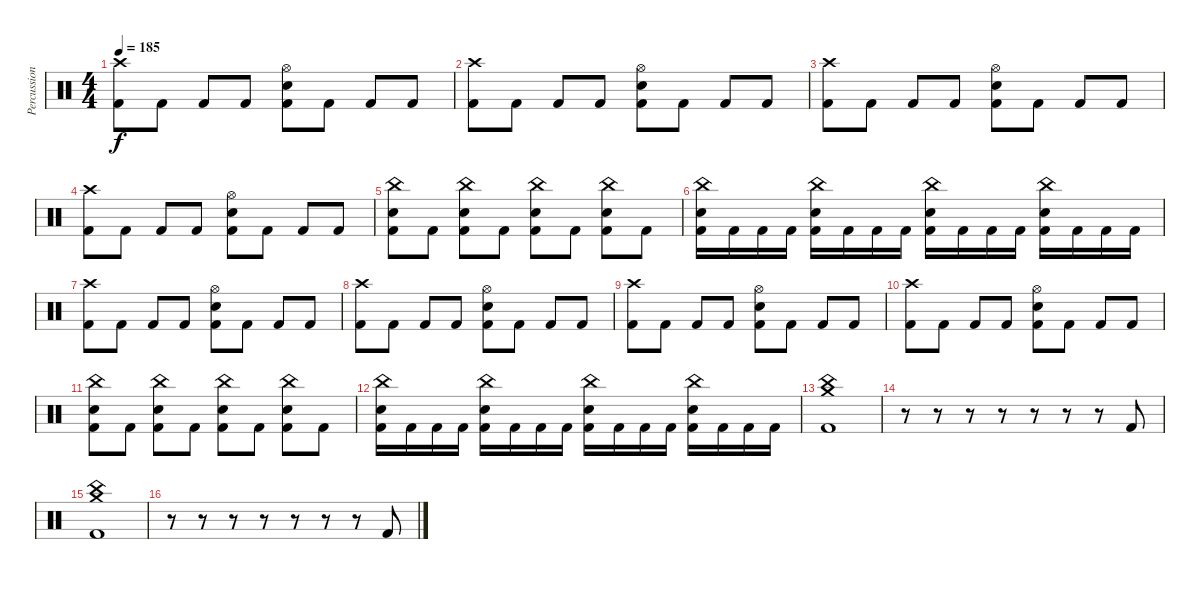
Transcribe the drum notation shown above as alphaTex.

\track ("Percussion" "Percussion") {instrument percussion}
\staff {score}
\articulation defaults
\ts (4 4)
\tempo 185
\clef neutral
\ks c
("Crash high (hit)" "Kick (hit) 2").8{dy f} "Kick (hit) 2".8 "Kick (hit) 2".8 "Kick (hit) 2".8 ("Snare (hit) 2" "Hi-Hat (open)" "Kick (hit) 2").8 "Kick (hit) 2".8 "Kick (hit) 2".8 "Kick (hit) 2".8 |
("Crash high (hit)" "Kick (hit) 2").8 "Kick (hit) 2".8 "Kick (hit) 2".8 "Kick (hit) 2".8 ("Snare (hit) 2" "Hi-Hat (open)" "Kick (hit) 2").8 "Kick (hit) 2".8 "Kick (hit) 2".8 "Kick (hit) 2".8 |
("Crash high (hit)" "Kick (hit) 2").8 "Kick (hit) 2".8 "Kick (hit) 2".8 "Kick (hit) 2".8 ("Snare (hit) 2" "Hi-Hat (open)" "Kick (hit) 2").8 "Kick (hit) 2".8 "Kick (hit) 2".8 "Kick (hit) 2".8 |
("Crash high (hit)" "Kick (hit) 2").8 "Kick (hit) 2".8 "Kick (hit) 2".8 "Kick (hit) 2".8 ("Snare (hit) 2" "Hi-Hat (open)" "Kick (hit) 2").8 "Kick (hit) 2".8 "Kick (hit) 2".8 "Kick (hit) 2".8 |
("Snare (hit) 2" "China (hit)" "Kick (hit) 2").8 "Kick (hit) 2".8 ("Snare (hit) 2" "China (hit)" "Kick (hit) 2").8 "Kick (hit) 2".8 ("Snare (hit) 2" "China (hit)" "Kick (hit) 2").8 "Kick (hit) 2".8 ("Snare (hit) 2" "China (hit)" "Kick (hit) 2").8 "Kick (hit) 2".8 |
("Snare (hit) 2" "China (hit)" "Kick (hit) 2").16 "Kick (hit) 2".16 "Kick (hit) 2".16 "Kick (hit) 2".16 ("Snare (hit) 2" "China (hit)" "Kick (hit) 2").16 "Kick (hit) 2".16 "Kick (hit) 2".16 "Kick (hit) 2".16 ("Snare (hit) 2" "China (hit)" "Kick (hit) 2").16 "Kick (hit) 2".16 "Kick (hit) 2".16 "Kick (hit) 2".16 ("Snare (hit) 2" "China (hit)" "Kick (hit) 2").16 "Kick (hit) 2".16 "Kick (hit) 2".16 "Kick (hit) 2".16 |
("Crash high (hit)" "Kick (hit) 2").8 "Kick (hit) 2".8 "Kick (hit) 2".8 "Kick (hit) 2".8 ("Snare (hit) 2" "Hi-Hat (open)" "Kick (hit) 2").8 "Kick (hit) 2".8 "Kick (hit) 2".8 "Kick (hit) 2".8 |
("Crash high (hit)" "Kick (hit) 2").8 "Kick (hit) 2".8 "Kick (hit) 2".8 "Kick (hit) 2".8 ("Snare (hit) 2" "Hi-Hat (open)" "Kick (hit) 2").8 "Kick (hit) 2".8 "Kick (hit) 2".8 "Kick (hit) 2".8 |
("Crash high (hit)" "Kick (hit) 2").8 "Kick (hit) 2".8 "Kick (hit) 2".8 "Kick (hit) 2".8 ("Snare (hit) 2" "Hi-Hat (open)" "Kick (hit) 2").8 "Kick (hit) 2".8 "Kick (hit) 2".8 "Kick (hit) 2".8 |
("Crash high (hit)" "Kick (hit) 2").8 "Kick (hit) 2".8 "Kick (hit) 2".8 "Kick (hit) 2".8 ("Snare (hit) 2" "Hi-Hat (open)" "Kick (hit) 2").8 "Kick (hit) 2".8 "Kick (hit) 2".8 "Kick (hit) 2".8 |
("Snare (hit) 2" "China (hit)" "Kick (hit) 2").8 "Kick (hit) 2".8 ("Snare (hit) 2" "China (hit)" "Kick (hit) 2").8 "Kick (hit) 2".8 ("Snare (hit) 2" "China (hit)" "Kick (hit) 2").8 "Kick (hit) 2".8 ("Snare (hit) 2" "China (hit)" "Kick (hit) 2").8 "Kick (hit) 2".8 |
("Snare (hit) 2" "China (hit)" "Kick (hit) 2").16 "Kick (hit) 2".16 "Kick (hit) 2".16 "Kick (hit) 2".16 ("Snare (hit) 2" "China (hit)" "Kick (hit) 2").16 "Kick (hit) 2".16 "Kick (hit) 2".16 "Kick (hit) 2".16 ("Snare (hit) 2" "China (hit)" "Kick (hit) 2").16 "Kick (hit) 2".16 "Kick (hit) 2".16 "Kick (hit) 2".16 ("Snare (hit) 2" "China (hit)" "Kick (hit) 2").16 "Kick (hit) 2".16 "Kick (hit) 2".16 "Kick (hit) 2".16 |
("Kick (hit) 2" "China (hit)" "Crash medium (hit)").1 |
r.8 r.8 r.8 r.8 r.8 r.8 r.8 "Kick (hit) 2".8 |
("Kick (hit) 2" "China (hit)" "Crash medium (hit)").1 |
r.8 r.8 r.8 r.8 r.8 r.8 r.8 "Kick (hit) 2".8
